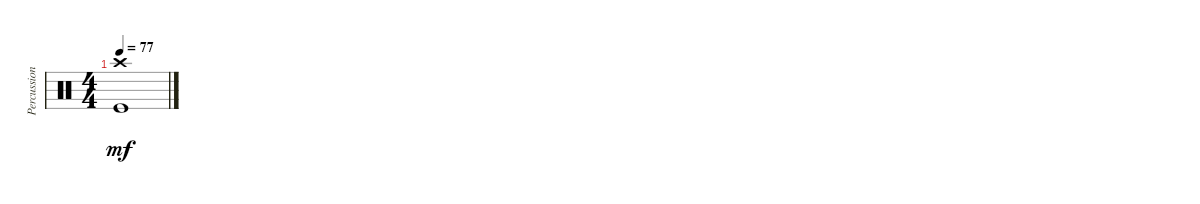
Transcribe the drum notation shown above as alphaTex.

\track ("Percussion" "Percussion") {instrument percussion}
\staff {score}
\articulation defaults
\ts (4 4)
\tempo 77
\clef neutral
\ks c
("Crash high (hit)" "Kick (hit)").1{dy mf}
